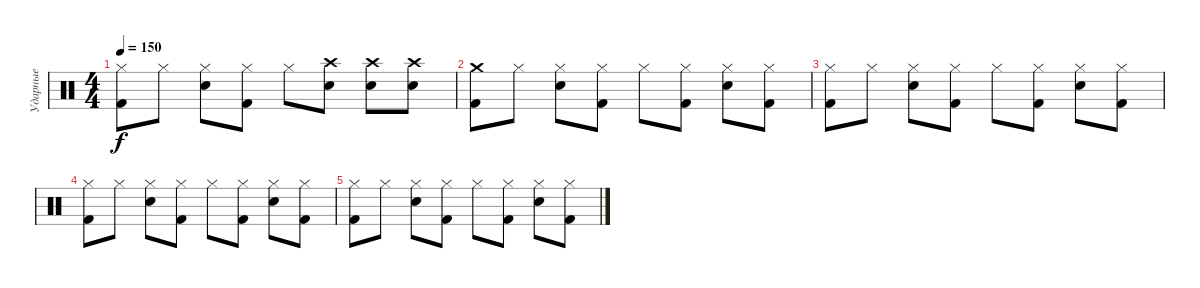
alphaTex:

\track ("Ударные" "Ударные") {instrument percussion}
\staff {score}
\articulation defaults
\ts (4 4)
\tempo 150
\clef neutral
\ks c
("Hi-Hat (closed)" "Kick (hit) 2").8{dy f} "Hi-Hat (closed)".8 ("Hi-Hat (closed)" "Electric Snare (hit)").8 ("Hi-Hat (closed)" "Kick (hit) 2").8 "Hi-Hat (closed)".8 ("Crash high (hit)" "Electric Snare (hit)").8 ("Crash high (hit)" "Electric Snare (hit)").8 ("Crash high (hit)" "Electric Snare (hit)").8 |
("Crash medium (hit)" "Kick (hit) 2").8 "Hi-Hat (closed)".8 ("Hi-Hat (closed)" "Electric Snare (hit)").8 ("Hi-Hat (closed)" "Kick (hit) 2").8 "Hi-Hat (closed)".8 ("Hi-Hat (closed)" "Kick (hit) 2").8 ("Hi-Hat (closed)" "Electric Snare (hit)").8 ("Hi-Hat (closed)" "Kick (hit) 2").8 |
("Hi-Hat (closed)" "Kick (hit) 2").8 "Hi-Hat (closed)".8 ("Hi-Hat (closed)" "Electric Snare (hit)").8 ("Hi-Hat (closed)" "Kick (hit) 2").8 "Hi-Hat (closed)".8 ("Hi-Hat (closed)" "Kick (hit) 2").8 ("Hi-Hat (closed)" "Electric Snare (hit)").8 ("Hi-Hat (closed)" "Kick (hit) 2").8 |
("Hi-Hat (closed)" "Kick (hit) 2").8 "Hi-Hat (closed)".8 ("Hi-Hat (closed)" "Electric Snare (hit)").8 ("Hi-Hat (closed)" "Kick (hit) 2").8 "Hi-Hat (closed)".8 ("Hi-Hat (closed)" "Kick (hit) 2").8 ("Hi-Hat (closed)" "Electric Snare (hit)").8 ("Hi-Hat (closed)" "Kick (hit) 2").8 |
("Hi-Hat (closed)" "Kick (hit) 2").8 "Hi-Hat (closed)".8 ("Hi-Hat (closed)" "Electric Snare (hit)").8 ("Hi-Hat (closed)" "Kick (hit) 2").8 "Hi-Hat (closed)".8 ("Hi-Hat (closed)" "Kick (hit) 2").8 ("Hi-Hat (closed)" "Electric Snare (hit)").8 ("Hi-Hat (closed)" "Kick (hit) 2").8
